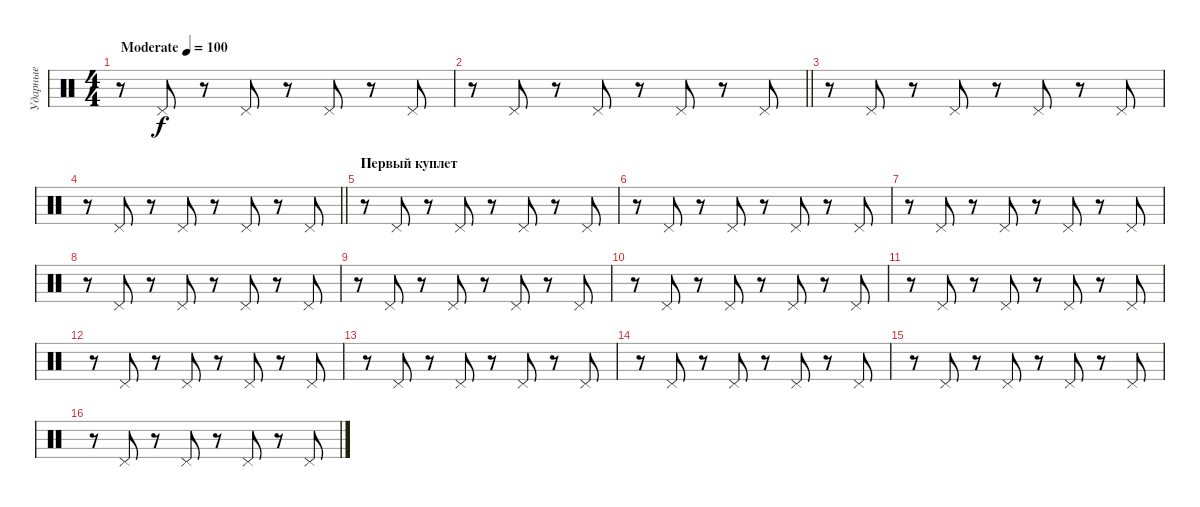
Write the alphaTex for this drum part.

\track ("Ударные" "Ударные") {instrument percussion}
\staff {score}
\articulation defaults
\ts (4 4)
\tempo (100 "Moderate")
\clef neutral
\ks c
r.8{dy f} "Pedal Hi-Hat (hit)".8 r.8 "Pedal Hi-Hat (hit)".8 r.8 "Pedal Hi-Hat (hit)".8 r.8 "Pedal Hi-Hat (hit)".8 |
\barLineRight lightlight
r.8 "Pedal Hi-Hat (hit)".8 r.8 "Pedal Hi-Hat (hit)".8 r.8 "Pedal Hi-Hat (hit)".8 r.8 "Pedal Hi-Hat (hit)".8 |
r.8{volume 11} "Pedal Hi-Hat (hit)".8 r.8 "Pedal Hi-Hat (hit)".8 r.8 "Pedal Hi-Hat (hit)".8 r.8 "Pedal Hi-Hat (hit)".8 |
\barLineRight lightlight
r.8 "Pedal Hi-Hat (hit)".8 r.8 "Pedal Hi-Hat (hit)".8 r.8 "Pedal Hi-Hat (hit)".8 r.8 "Pedal Hi-Hat (hit)".8 |
\section ("" "Первый куплет")
r.8 "Pedal Hi-Hat (hit)".8 r.8 "Pedal Hi-Hat (hit)".8 r.8 "Pedal Hi-Hat (hit)".8 r.8 "Pedal Hi-Hat (hit)".8 |
r.8 "Pedal Hi-Hat (hit)".8 r.8 "Pedal Hi-Hat (hit)".8 r.8 "Pedal Hi-Hat (hit)".8 r.8 "Pedal Hi-Hat (hit)".8 |
r.8 "Pedal Hi-Hat (hit)".8 r.8 "Pedal Hi-Hat (hit)".8 r.8 "Pedal Hi-Hat (hit)".8 r.8 "Pedal Hi-Hat (hit)".8 |
r.8 "Pedal Hi-Hat (hit)".8 r.8 "Pedal Hi-Hat (hit)".8 r.8 "Pedal Hi-Hat (hit)".8 r.8 "Pedal Hi-Hat (hit)".8 |
r.8 "Pedal Hi-Hat (hit)".8 r.8 "Pedal Hi-Hat (hit)".8 r.8 "Pedal Hi-Hat (hit)".8 r.8 "Pedal Hi-Hat (hit)".8 |
r.8 "Pedal Hi-Hat (hit)".8 r.8 "Pedal Hi-Hat (hit)".8 r.8 "Pedal Hi-Hat (hit)".8 r.8 "Pedal Hi-Hat (hit)".8 |
r.8 "Pedal Hi-Hat (hit)".8 r.8 "Pedal Hi-Hat (hit)".8 r.8 "Pedal Hi-Hat (hit)".8 r.8 "Pedal Hi-Hat (hit)".8 |
r.8 "Pedal Hi-Hat (hit)".8 r.8 "Pedal Hi-Hat (hit)".8 r.8 "Pedal Hi-Hat (hit)".8 r.8 "Pedal Hi-Hat (hit)".8 |
r.8 "Pedal Hi-Hat (hit)".8 r.8 "Pedal Hi-Hat (hit)".8 r.8 "Pedal Hi-Hat (hit)".8 r.8 "Pedal Hi-Hat (hit)".8 |
r.8 "Pedal Hi-Hat (hit)".8 r.8 "Pedal Hi-Hat (hit)".8 r.8 "Pedal Hi-Hat (hit)".8 r.8 "Pedal Hi-Hat (hit)".8 |
r.8 "Pedal Hi-Hat (hit)".8 r.8 "Pedal Hi-Hat (hit)".8 r.8 "Pedal Hi-Hat (hit)".8 r.8 "Pedal Hi-Hat (hit)".8 |
r.8 "Pedal Hi-Hat (hit)".8 r.8 "Pedal Hi-Hat (hit)".8 r.8 "Pedal Hi-Hat (hit)".8 r.8 "Pedal Hi-Hat (hit)".8
